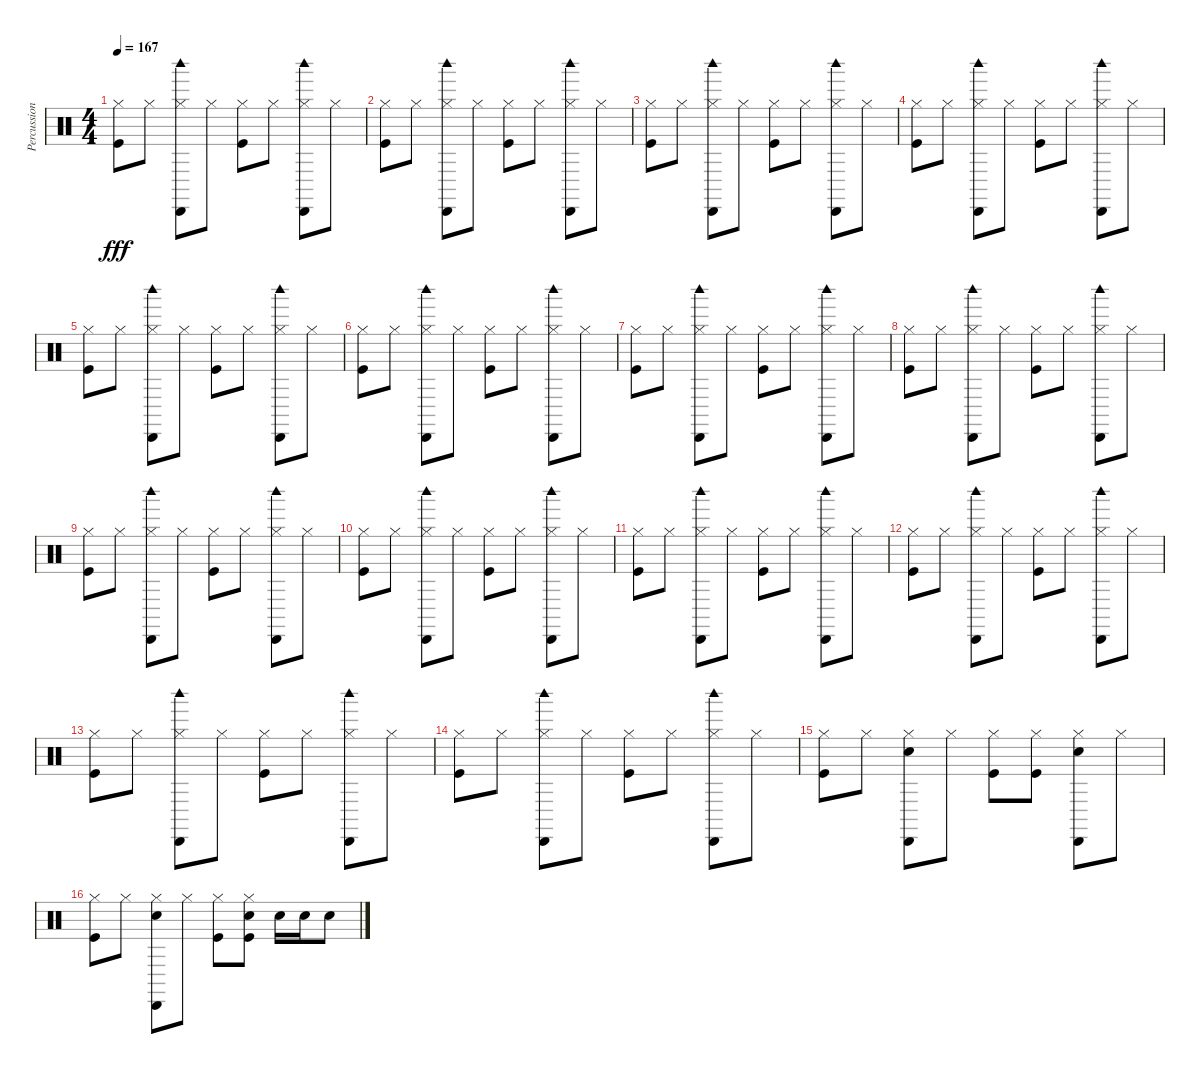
\track ("Percussion" "Percussion") {instrument percussion}
\staff {score}
\articulation defaults
\ts (4 4)
\tempo 167
\clef neutral
\ks c
("Hi-Hat (closed)" "Kick (hit)").8{dy fff} "Hi-Hat (closed)".8 ("Hi-Hat (closed)" "Cabasa (hit)" "Woodblock high (hit)").8 "Hi-Hat (closed)".8 ("Hi-Hat (closed)" "Kick (hit)").8 "Hi-Hat (closed)".8 ("Hi-Hat (closed)" "Cabasa (hit)" "Woodblock high (hit)").8 "Hi-Hat (closed)".8 |
("Hi-Hat (closed)" "Kick (hit)").8 "Hi-Hat (closed)".8 ("Hi-Hat (closed)" "Cabasa (hit)" "Woodblock high (hit)").8 "Hi-Hat (closed)".8 ("Hi-Hat (closed)" "Kick (hit)").8 "Hi-Hat (closed)".8 ("Hi-Hat (closed)" "Cabasa (hit)" "Woodblock high (hit)").8 "Hi-Hat (closed)".8 |
("Hi-Hat (closed)" "Kick (hit)").8 "Hi-Hat (closed)".8 ("Hi-Hat (closed)" "Cabasa (hit)" "Woodblock high (hit)").8 "Hi-Hat (closed)".8 ("Hi-Hat (closed)" "Kick (hit)").8 "Hi-Hat (closed)".8 ("Hi-Hat (closed)" "Cabasa (hit)" "Woodblock high (hit)").8 "Hi-Hat (closed)".8 |
("Hi-Hat (closed)" "Kick (hit)").8 "Hi-Hat (closed)".8 ("Hi-Hat (closed)" "Cabasa (hit)" "Woodblock high (hit)").8 "Hi-Hat (closed)".8 ("Hi-Hat (closed)" "Kick (hit)").8 "Hi-Hat (closed)".8 ("Hi-Hat (closed)" "Cabasa (hit)" "Woodblock high (hit)").8 "Hi-Hat (closed)".8 |
("Hi-Hat (closed)" "Kick (hit)").8 "Hi-Hat (closed)".8 ("Hi-Hat (closed)" "Cabasa (hit)" "Woodblock high (hit)").8 "Hi-Hat (closed)".8 ("Hi-Hat (closed)" "Kick (hit)").8 "Hi-Hat (closed)".8 ("Hi-Hat (closed)" "Cabasa (hit)" "Woodblock high (hit)").8 "Hi-Hat (closed)".8 |
("Hi-Hat (closed)" "Kick (hit)").8 "Hi-Hat (closed)".8 ("Hi-Hat (closed)" "Cabasa (hit)" "Woodblock high (hit)").8 "Hi-Hat (closed)".8 ("Hi-Hat (closed)" "Kick (hit)").8 "Hi-Hat (closed)".8 ("Hi-Hat (closed)" "Cabasa (hit)" "Woodblock high (hit)").8 "Hi-Hat (closed)".8 |
("Hi-Hat (closed)" "Kick (hit)").8 "Hi-Hat (closed)".8 ("Hi-Hat (closed)" "Cabasa (hit)" "Woodblock high (hit)").8 "Hi-Hat (closed)".8 ("Hi-Hat (closed)" "Kick (hit)").8 "Hi-Hat (closed)".8 ("Hi-Hat (closed)" "Cabasa (hit)" "Woodblock high (hit)").8 "Hi-Hat (closed)".8 |
("Hi-Hat (closed)" "Kick (hit)").8 "Hi-Hat (closed)".8 ("Hi-Hat (closed)" "Cabasa (hit)" "Woodblock high (hit)").8 "Hi-Hat (closed)".8 ("Hi-Hat (closed)" "Kick (hit)").8 "Hi-Hat (closed)".8 ("Hi-Hat (closed)" "Cabasa (hit)" "Woodblock high (hit)").8 "Hi-Hat (closed)".8 |
("Hi-Hat (closed)" "Kick (hit)").8 "Hi-Hat (closed)".8 ("Hi-Hat (closed)" "Cabasa (hit)" "Woodblock high (hit)").8 "Hi-Hat (closed)".8 ("Hi-Hat (closed)" "Kick (hit)").8 "Hi-Hat (closed)".8 ("Hi-Hat (closed)" "Cabasa (hit)" "Woodblock high (hit)").8 "Hi-Hat (closed)".8 |
("Hi-Hat (closed)" "Kick (hit)").8 "Hi-Hat (closed)".8 ("Hi-Hat (closed)" "Cabasa (hit)" "Woodblock high (hit)").8 "Hi-Hat (closed)".8 ("Hi-Hat (closed)" "Kick (hit)").8 "Hi-Hat (closed)".8 ("Hi-Hat (closed)" "Cabasa (hit)" "Woodblock high (hit)").8 "Hi-Hat (closed)".8 |
("Hi-Hat (closed)" "Kick (hit)").8 "Hi-Hat (closed)".8 ("Hi-Hat (closed)" "Cabasa (hit)" "Woodblock high (hit)").8 "Hi-Hat (closed)".8 ("Hi-Hat (closed)" "Kick (hit)").8 "Hi-Hat (closed)".8 ("Hi-Hat (closed)" "Cabasa (hit)" "Woodblock high (hit)").8 "Hi-Hat (closed)".8 |
("Hi-Hat (closed)" "Kick (hit)").8 "Hi-Hat (closed)".8 ("Hi-Hat (closed)" "Cabasa (hit)" "Woodblock high (hit)").8 "Hi-Hat (closed)".8 ("Hi-Hat (closed)" "Kick (hit)").8 "Hi-Hat (closed)".8 ("Hi-Hat (closed)" "Cabasa (hit)" "Woodblock high (hit)").8 "Hi-Hat (closed)".8 |
("Hi-Hat (closed)" "Kick (hit)").8 "Hi-Hat (closed)".8 ("Hi-Hat (closed)" "Cabasa (hit)" "Woodblock high (hit)").8 "Hi-Hat (closed)".8 ("Hi-Hat (closed)" "Kick (hit)").8 "Hi-Hat (closed)".8 ("Hi-Hat (closed)" "Cabasa (hit)" "Woodblock high (hit)").8 "Hi-Hat (closed)".8 |
("Hi-Hat (closed)" "Kick (hit)").8 "Hi-Hat (closed)".8 ("Hi-Hat (closed)" "Cabasa (hit)" "Woodblock high (hit)").8 "Hi-Hat (closed)".8 ("Hi-Hat (closed)" "Kick (hit)").8 "Hi-Hat (closed)".8 ("Hi-Hat (closed)" "Cabasa (hit)" "Woodblock high (hit)").8 "Hi-Hat (closed)".8 |
("Hi-Hat (closed)" "Kick (hit)").8 "Hi-Hat (closed)".8 ("Hi-Hat (closed)" "Cabasa (hit)" "Snare (hit) 2").8 "Hi-Hat (closed)".8 ("Hi-Hat (closed)" "Kick (hit)").8 ("Hi-Hat (closed)" "Kick (hit)").8 ("Hi-Hat (closed)" "Cabasa (hit)" "Snare (hit) 2").8 "Hi-Hat (closed)".8 |
("Hi-Hat (closed)" "Kick (hit)").8 "Hi-Hat (closed)".8 ("Hi-Hat (closed)" "Cabasa (hit)" "Snare (hit) 2").8 "Hi-Hat (closed)".8 ("Hi-Hat (closed)" "Kick (hit)").8 ("Hi-Hat (closed)" "Snare (hit) 2" "Kick (hit)").8 "Snare (hit) 2".16 "Snare (hit) 2".16 "Snare (hit) 2".8
